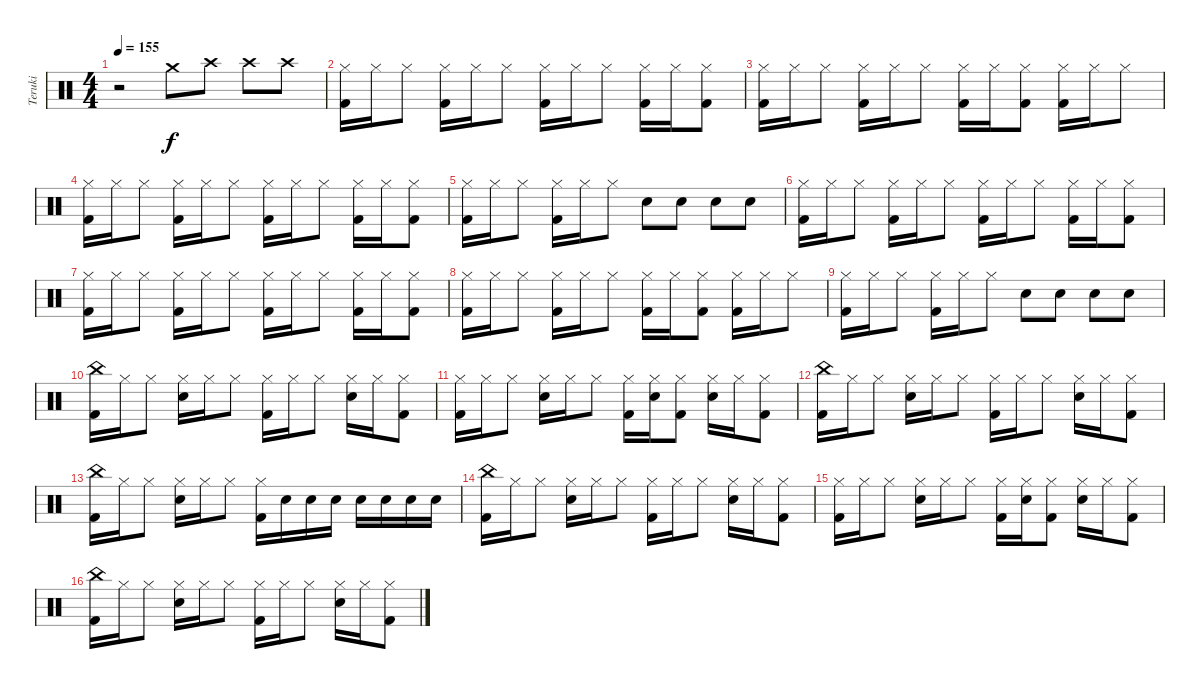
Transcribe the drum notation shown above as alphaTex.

\track ("Teruki" "Teruki") {instrument percussion}
\staff {score}
\articulation defaults
\ts (4 4)
\tempo 155
\clef neutral
\ks c
r.2{dy f} "Crash medium (hit)".8 "Crash high (hit)".8 "Crash high (hit)".8 "Crash high (hit)".8 |
("Hi-Hat (closed)" "Kick (hit) 2").16 "Hi-Hat (closed)".16 "Hi-Hat (closed)".8 ("Hi-Hat (closed)" "Kick (hit) 2").16 "Hi-Hat (closed)".16 "Hi-Hat (closed)".8 ("Hi-Hat (closed)" "Kick (hit) 2").16 "Hi-Hat (closed)".16 "Hi-Hat (closed)".8 ("Hi-Hat (closed)" "Kick (hit) 2").16 "Hi-Hat (closed)".16 ("Hi-Hat (closed)" "Kick (hit) 2").8 |
("Hi-Hat (closed)" "Kick (hit) 2").16 "Hi-Hat (closed)".16 "Hi-Hat (closed)".8 ("Hi-Hat (closed)" "Kick (hit) 2").16 "Hi-Hat (closed)".16 "Hi-Hat (closed)".8 ("Hi-Hat (closed)" "Kick (hit) 2").16 "Hi-Hat (closed)".16 ("Hi-Hat (closed)" "Kick (hit) 2").8 ("Hi-Hat (closed)" "Kick (hit) 2").16 "Hi-Hat (closed)".16 "Hi-Hat (closed)".8 |
("Hi-Hat (closed)" "Kick (hit) 2").16 "Hi-Hat (closed)".16 "Hi-Hat (closed)".8 ("Hi-Hat (closed)" "Kick (hit) 2").16 "Hi-Hat (closed)".16 "Hi-Hat (closed)".8 ("Hi-Hat (closed)" "Kick (hit) 2").16 "Hi-Hat (closed)".16 "Hi-Hat (closed)".8 ("Hi-Hat (closed)" "Kick (hit) 2").16 "Hi-Hat (closed)".16 ("Hi-Hat (closed)" "Kick (hit) 2").8 |
("Hi-Hat (closed)" "Kick (hit) 2").16 "Hi-Hat (closed)".16 "Hi-Hat (closed)".8 ("Hi-Hat (closed)" "Kick (hit) 2").16 "Hi-Hat (closed)".16 "Hi-Hat (closed)".8 "Snare (hit) 2".8 "Snare (hit) 2".8 "Snare (hit) 2".8 "Snare (hit) 2".8 |
("Hi-Hat (closed)" "Kick (hit) 2").16 "Hi-Hat (closed)".16 "Hi-Hat (closed)".8 ("Hi-Hat (closed)" "Kick (hit) 2").16 "Hi-Hat (closed)".16 "Hi-Hat (closed)".8 ("Hi-Hat (closed)" "Kick (hit) 2").16 "Hi-Hat (closed)".16 "Hi-Hat (closed)".8 ("Hi-Hat (closed)" "Kick (hit) 2").16 "Hi-Hat (closed)".16 ("Hi-Hat (closed)" "Kick (hit) 2").8 |
("Hi-Hat (closed)" "Kick (hit) 2").16 "Hi-Hat (closed)".16 "Hi-Hat (closed)".8 ("Hi-Hat (closed)" "Kick (hit) 2").16 "Hi-Hat (closed)".16 "Hi-Hat (closed)".8 ("Hi-Hat (closed)" "Kick (hit) 2").16 "Hi-Hat (closed)".16 "Hi-Hat (closed)".8 ("Hi-Hat (closed)" "Kick (hit) 2").16 "Hi-Hat (closed)".16 ("Hi-Hat (closed)" "Kick (hit) 2").8 |
("Hi-Hat (closed)" "Kick (hit) 2").16 "Hi-Hat (closed)".16 "Hi-Hat (closed)".8 ("Hi-Hat (closed)" "Kick (hit) 2").16 "Hi-Hat (closed)".16 "Hi-Hat (closed)".8 ("Hi-Hat (closed)" "Kick (hit) 2").16 "Hi-Hat (closed)".16 ("Hi-Hat (closed)" "Kick (hit) 2").8 ("Hi-Hat (closed)" "Kick (hit) 2").16 "Hi-Hat (closed)".16 "Hi-Hat (closed)".8 |
("Hi-Hat (closed)" "Kick (hit) 2").16 "Hi-Hat (closed)".16 "Hi-Hat (closed)".8 ("Hi-Hat (closed)" "Kick (hit) 2").16 "Hi-Hat (closed)".16 "Hi-Hat (closed)".8 "Snare (hit) 2".8 "Snare (hit) 2".8 "Snare (hit) 2".8 "Snare (hit) 2".8 |
("China (hit)" "Kick (hit) 2").16 "Hi-Hat (closed)".16 "Hi-Hat (closed)".8 ("Hi-Hat (closed)" "Snare (hit) 2").16 "Hi-Hat (closed)".16 "Hi-Hat (closed)".8 ("Hi-Hat (closed)" "Kick (hit) 2").16 "Hi-Hat (closed)".16 "Hi-Hat (closed)".8 ("Hi-Hat (closed)" "Snare (hit) 2").16 "Hi-Hat (closed)".16 ("Hi-Hat (closed)" "Kick (hit) 2").8 |
("Hi-Hat (closed)" "Kick (hit) 2").16 "Hi-Hat (closed)".16 "Hi-Hat (closed)".8 ("Hi-Hat (closed)" "Snare (hit) 2").16 "Hi-Hat (closed)".16 "Hi-Hat (closed)".8 ("Hi-Hat (closed)" "Kick (hit) 2").16 ("Hi-Hat (closed)" "Snare (hit) 2").16 ("Hi-Hat (closed)" "Kick (hit) 2").8 ("Hi-Hat (closed)" "Snare (hit) 2").16 "Hi-Hat (closed)".16 ("Hi-Hat (closed)" "Kick (hit) 2").8 |
("China (hit)" "Kick (hit) 2").16 "Hi-Hat (closed)".16 "Hi-Hat (closed)".8 ("Hi-Hat (closed)" "Snare (hit) 2").16 "Hi-Hat (closed)".16 "Hi-Hat (closed)".8 ("Hi-Hat (closed)" "Kick (hit) 2").16 "Hi-Hat (closed)".16 "Hi-Hat (closed)".8 ("Hi-Hat (closed)" "Snare (hit) 2").16 "Hi-Hat (closed)".16 ("Hi-Hat (closed)" "Kick (hit) 2").8 |
("China (hit)" "Kick (hit) 2").16 "Hi-Hat (closed)".16 "Hi-Hat (closed)".8 ("Hi-Hat (closed)" "Snare (hit) 2").16 "Hi-Hat (closed)".16 "Hi-Hat (closed)".8 ("Hi-Hat (closed)" "Kick (hit) 2").16 "Snare (hit) 2".16 "Snare (hit) 2".16 "Snare (hit) 2".16 "Snare (hit) 2".16 "Snare (hit) 2".16 "Snare (hit) 2".16 "Snare (hit) 2".16 |
("China (hit)" "Kick (hit) 2").16 "Hi-Hat (closed)".16 "Hi-Hat (closed)".8 ("Hi-Hat (closed)" "Snare (hit) 2").16 "Hi-Hat (closed)".16 "Hi-Hat (closed)".8 ("Hi-Hat (closed)" "Kick (hit) 2").16 "Hi-Hat (closed)".16 "Hi-Hat (closed)".8 ("Hi-Hat (closed)" "Snare (hit) 2").16 "Hi-Hat (closed)".16 ("Hi-Hat (closed)" "Kick (hit) 2").8 |
("Hi-Hat (closed)" "Kick (hit) 2").16 "Hi-Hat (closed)".16 "Hi-Hat (closed)".8 ("Hi-Hat (closed)" "Snare (hit) 2").16 "Hi-Hat (closed)".16 "Hi-Hat (closed)".8 ("Hi-Hat (closed)" "Kick (hit) 2").16 ("Hi-Hat (closed)" "Snare (hit) 2").16 ("Hi-Hat (closed)" "Kick (hit) 2").8 ("Hi-Hat (closed)" "Snare (hit) 2").16 "Hi-Hat (closed)".16 ("Hi-Hat (closed)" "Kick (hit) 2").8 |
("China (hit)" "Kick (hit) 2").16 "Hi-Hat (closed)".16 "Hi-Hat (closed)".8 ("Hi-Hat (closed)" "Snare (hit) 2").16 "Hi-Hat (closed)".16 "Hi-Hat (closed)".8 ("Hi-Hat (closed)" "Kick (hit) 2").16 "Hi-Hat (closed)".16 "Hi-Hat (closed)".8 ("Hi-Hat (closed)" "Snare (hit) 2").16 "Hi-Hat (closed)".16 ("Hi-Hat (closed)" "Kick (hit) 2").8
